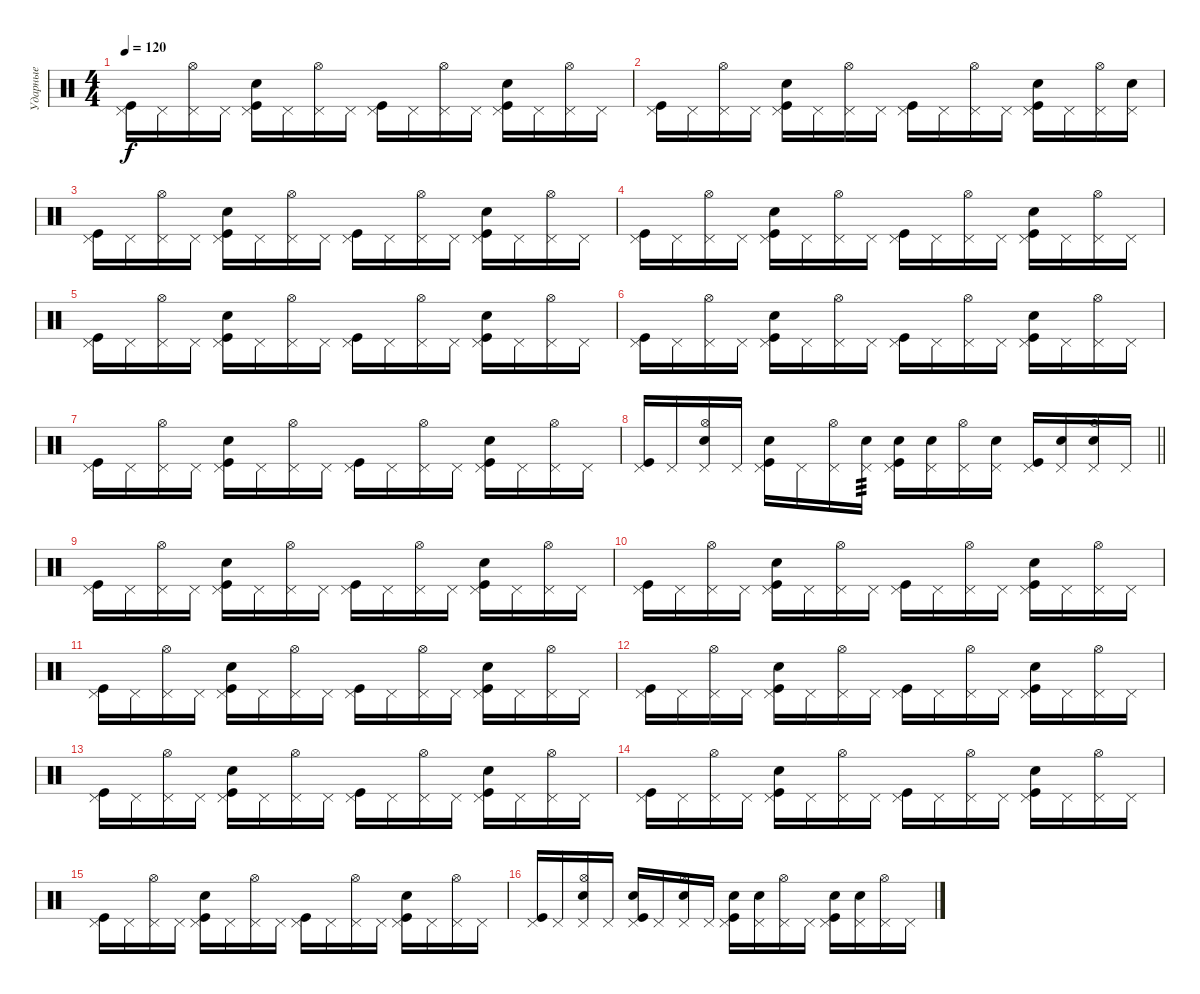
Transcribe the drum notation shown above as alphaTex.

\track ("Ударные" "Ударные") {instrument percussion}
\staff {score}
\articulation defaults
\ts (4 4)
\tempo 120
\clef neutral
\ks c
("Pedal Hi-Hat (hit)" "Kick (hit)").16{dy f} "Pedal Hi-Hat (hit)".16 ("Pedal Hi-Hat (hit)" "Hi-Hat (open)").16 "Pedal Hi-Hat (hit)".16 ("Pedal Hi-Hat (hit)" "Kick (hit)" "Snare (hit) 2").16 "Pedal Hi-Hat (hit)".16 ("Pedal Hi-Hat (hit)" "Hi-Hat (open)").16 "Pedal Hi-Hat (hit)".16 ("Pedal Hi-Hat (hit)" "Kick (hit)").16 "Pedal Hi-Hat (hit)".16 ("Pedal Hi-Hat (hit)" "Hi-Hat (open)").16 "Pedal Hi-Hat (hit)".16 ("Pedal Hi-Hat (hit)" "Kick (hit)" "Snare (hit) 2").16 "Pedal Hi-Hat (hit)".16 ("Pedal Hi-Hat (hit)" "Hi-Hat (open)").16 "Pedal Hi-Hat (hit)".16 |
("Pedal Hi-Hat (hit)" "Kick (hit)").16 "Pedal Hi-Hat (hit)".16 ("Pedal Hi-Hat (hit)" "Hi-Hat (open)").16 "Pedal Hi-Hat (hit)".16 ("Pedal Hi-Hat (hit)" "Kick (hit)" "Snare (hit) 2").16 "Pedal Hi-Hat (hit)".16 ("Pedal Hi-Hat (hit)" "Hi-Hat (open)").16 "Pedal Hi-Hat (hit)".16 ("Pedal Hi-Hat (hit)" "Kick (hit)").16 "Pedal Hi-Hat (hit)".16 ("Pedal Hi-Hat (hit)" "Hi-Hat (open)").16 "Pedal Hi-Hat (hit)".16 ("Pedal Hi-Hat (hit)" "Kick (hit)" "Snare (hit) 2").16 "Pedal Hi-Hat (hit)".16 ("Pedal Hi-Hat (hit)" "Hi-Hat (open)").16 ("Pedal Hi-Hat (hit)" "Snare (hit) 2").16 |
("Pedal Hi-Hat (hit)" "Kick (hit)").16 "Pedal Hi-Hat (hit)".16 ("Pedal Hi-Hat (hit)" "Hi-Hat (open)").16 "Pedal Hi-Hat (hit)".16 ("Pedal Hi-Hat (hit)" "Kick (hit)" "Snare (hit) 2").16 "Pedal Hi-Hat (hit)".16 ("Pedal Hi-Hat (hit)" "Hi-Hat (open)").16 "Pedal Hi-Hat (hit)".16 ("Pedal Hi-Hat (hit)" "Kick (hit)").16 "Pedal Hi-Hat (hit)".16 ("Pedal Hi-Hat (hit)" "Hi-Hat (open)").16 "Pedal Hi-Hat (hit)".16 ("Pedal Hi-Hat (hit)" "Kick (hit)" "Snare (hit) 2").16 "Pedal Hi-Hat (hit)".16 ("Pedal Hi-Hat (hit)" "Hi-Hat (open)").16 "Pedal Hi-Hat (hit)".16 |
("Pedal Hi-Hat (hit)" "Kick (hit)").16 "Pedal Hi-Hat (hit)".16 ("Pedal Hi-Hat (hit)" "Hi-Hat (open)").16 "Pedal Hi-Hat (hit)".16 ("Pedal Hi-Hat (hit)" "Kick (hit)" "Snare (hit) 2").16 "Pedal Hi-Hat (hit)".16 ("Pedal Hi-Hat (hit)" "Hi-Hat (open)").16 "Pedal Hi-Hat (hit)".16 ("Pedal Hi-Hat (hit)" "Kick (hit)").16 "Pedal Hi-Hat (hit)".16 ("Pedal Hi-Hat (hit)" "Hi-Hat (open)").16 "Pedal Hi-Hat (hit)".16 ("Pedal Hi-Hat (hit)" "Kick (hit)" "Snare (hit) 2").16 "Pedal Hi-Hat (hit)".16 ("Pedal Hi-Hat (hit)" "Hi-Hat (open)").16 "Pedal Hi-Hat (hit)".16 |
("Pedal Hi-Hat (hit)" "Kick (hit)").16 "Pedal Hi-Hat (hit)".16 ("Pedal Hi-Hat (hit)" "Hi-Hat (open)").16 "Pedal Hi-Hat (hit)".16 ("Pedal Hi-Hat (hit)" "Kick (hit)" "Snare (hit) 2").16 "Pedal Hi-Hat (hit)".16 ("Pedal Hi-Hat (hit)" "Hi-Hat (open)").16 "Pedal Hi-Hat (hit)".16 ("Pedal Hi-Hat (hit)" "Kick (hit)").16 "Pedal Hi-Hat (hit)".16 ("Pedal Hi-Hat (hit)" "Hi-Hat (open)").16 "Pedal Hi-Hat (hit)".16 ("Pedal Hi-Hat (hit)" "Kick (hit)" "Snare (hit) 2").16 "Pedal Hi-Hat (hit)".16 ("Pedal Hi-Hat (hit)" "Hi-Hat (open)").16 "Pedal Hi-Hat (hit)".16 |
("Pedal Hi-Hat (hit)" "Kick (hit)").16 "Pedal Hi-Hat (hit)".16 ("Pedal Hi-Hat (hit)" "Hi-Hat (open)").16 "Pedal Hi-Hat (hit)".16 ("Pedal Hi-Hat (hit)" "Kick (hit)" "Snare (hit) 2").16 "Pedal Hi-Hat (hit)".16 ("Pedal Hi-Hat (hit)" "Hi-Hat (open)").16 "Pedal Hi-Hat (hit)".16 ("Pedal Hi-Hat (hit)" "Kick (hit)").16 "Pedal Hi-Hat (hit)".16 ("Pedal Hi-Hat (hit)" "Hi-Hat (open)").16 "Pedal Hi-Hat (hit)".16 ("Pedal Hi-Hat (hit)" "Kick (hit)" "Snare (hit) 2").16 "Pedal Hi-Hat (hit)".16 ("Pedal Hi-Hat (hit)" "Hi-Hat (open)").16 "Pedal Hi-Hat (hit)".16 |
("Pedal Hi-Hat (hit)" "Kick (hit)").16 "Pedal Hi-Hat (hit)".16 ("Pedal Hi-Hat (hit)" "Hi-Hat (open)").16 "Pedal Hi-Hat (hit)".16 ("Pedal Hi-Hat (hit)" "Kick (hit)" "Snare (hit) 2").16 "Pedal Hi-Hat (hit)".16 ("Pedal Hi-Hat (hit)" "Hi-Hat (open)").16 "Pedal Hi-Hat (hit)".16 ("Pedal Hi-Hat (hit)" "Kick (hit)").16 "Pedal Hi-Hat (hit)".16 ("Pedal Hi-Hat (hit)" "Hi-Hat (open)").16 "Pedal Hi-Hat (hit)".16 ("Pedal Hi-Hat (hit)" "Kick (hit)" "Snare (hit) 2").16 "Pedal Hi-Hat (hit)".16 ("Pedal Hi-Hat (hit)" "Hi-Hat (open)").16 "Pedal Hi-Hat (hit)".16 |
\barLineRight lightlight
("Pedal Hi-Hat (hit)" "Kick (hit)").16 "Pedal Hi-Hat (hit)".16 ("Pedal Hi-Hat (hit)" "Hi-Hat (open)" "Snare (hit) 2").16 "Pedal Hi-Hat (hit)".16 ("Pedal Hi-Hat (hit)" "Kick (hit)" "Snare (hit) 2").16 "Pedal Hi-Hat (hit)".16 ("Pedal Hi-Hat (hit)" "Hi-Hat (open)").16 ("Pedal Hi-Hat (hit)" "Snare (hit) 2").16{tp 3} ("Pedal Hi-Hat (hit)" "Kick (hit)" "Snare (hit) 2").16 ("Pedal Hi-Hat (hit)" "Snare (hit) 2").16 ("Pedal Hi-Hat (hit)" "Hi-Hat (open)").16 ("Pedal Hi-Hat (hit)" "Snare (hit) 2").16 ("Pedal Hi-Hat (hit)" "Kick (hit)").16 ("Pedal Hi-Hat (hit)" "Snare (hit) 2").16 ("Pedal Hi-Hat (hit)" "Hi-Hat (open)" "Snare (hit) 2").16 "Pedal Hi-Hat (hit)".16 |
\section ("" "")
("Pedal Hi-Hat (hit)" "Kick (hit)").16 "Pedal Hi-Hat (hit)".16 ("Pedal Hi-Hat (hit)" "Hi-Hat (open)").16 "Pedal Hi-Hat (hit)".16 ("Pedal Hi-Hat (hit)" "Kick (hit)" "Snare (hit) 2").16 "Pedal Hi-Hat (hit)".16 ("Pedal Hi-Hat (hit)" "Hi-Hat (open)").16 "Pedal Hi-Hat (hit)".16 ("Pedal Hi-Hat (hit)" "Kick (hit)").16 "Pedal Hi-Hat (hit)".16 ("Pedal Hi-Hat (hit)" "Hi-Hat (open)").16 "Pedal Hi-Hat (hit)".16 ("Pedal Hi-Hat (hit)" "Kick (hit)" "Snare (hit) 2").16 "Pedal Hi-Hat (hit)".16 ("Pedal Hi-Hat (hit)" "Hi-Hat (open)").16 "Pedal Hi-Hat (hit)".16 |
("Pedal Hi-Hat (hit)" "Kick (hit)").16 "Pedal Hi-Hat (hit)".16 ("Pedal Hi-Hat (hit)" "Hi-Hat (open)").16 "Pedal Hi-Hat (hit)".16 ("Pedal Hi-Hat (hit)" "Kick (hit)" "Snare (hit) 2").16 "Pedal Hi-Hat (hit)".16 ("Pedal Hi-Hat (hit)" "Hi-Hat (open)").16 "Pedal Hi-Hat (hit)".16 ("Pedal Hi-Hat (hit)" "Kick (hit)").16 "Pedal Hi-Hat (hit)".16 ("Pedal Hi-Hat (hit)" "Hi-Hat (open)").16 "Pedal Hi-Hat (hit)".16 ("Pedal Hi-Hat (hit)" "Kick (hit)" "Snare (hit) 2").16 "Pedal Hi-Hat (hit)".16 ("Pedal Hi-Hat (hit)" "Hi-Hat (open)").16 "Pedal Hi-Hat (hit)".16 |
("Pedal Hi-Hat (hit)" "Kick (hit)").16 "Pedal Hi-Hat (hit)".16 ("Pedal Hi-Hat (hit)" "Hi-Hat (open)").16 "Pedal Hi-Hat (hit)".16 ("Pedal Hi-Hat (hit)" "Kick (hit)" "Snare (hit) 2").16 "Pedal Hi-Hat (hit)".16 ("Pedal Hi-Hat (hit)" "Hi-Hat (open)").16 "Pedal Hi-Hat (hit)".16 ("Pedal Hi-Hat (hit)" "Kick (hit)").16 "Pedal Hi-Hat (hit)".16 ("Pedal Hi-Hat (hit)" "Hi-Hat (open)").16 "Pedal Hi-Hat (hit)".16 ("Pedal Hi-Hat (hit)" "Kick (hit)" "Snare (hit) 2").16 "Pedal Hi-Hat (hit)".16 ("Pedal Hi-Hat (hit)" "Hi-Hat (open)").16 "Pedal Hi-Hat (hit)".16 |
("Pedal Hi-Hat (hit)" "Kick (hit)").16 "Pedal Hi-Hat (hit)".16 ("Pedal Hi-Hat (hit)" "Hi-Hat (open)").16 "Pedal Hi-Hat (hit)".16 ("Pedal Hi-Hat (hit)" "Kick (hit)" "Snare (hit) 2").16 "Pedal Hi-Hat (hit)".16 ("Pedal Hi-Hat (hit)" "Hi-Hat (open)").16 "Pedal Hi-Hat (hit)".16 ("Pedal Hi-Hat (hit)" "Kick (hit)").16 "Pedal Hi-Hat (hit)".16 ("Pedal Hi-Hat (hit)" "Hi-Hat (open)").16 "Pedal Hi-Hat (hit)".16 ("Pedal Hi-Hat (hit)" "Kick (hit)" "Snare (hit) 2").16 "Pedal Hi-Hat (hit)".16 ("Pedal Hi-Hat (hit)" "Hi-Hat (open)").16 "Pedal Hi-Hat (hit)".16 |
("Pedal Hi-Hat (hit)" "Kick (hit)").16 "Pedal Hi-Hat (hit)".16 ("Pedal Hi-Hat (hit)" "Hi-Hat (open)").16 "Pedal Hi-Hat (hit)".16 ("Pedal Hi-Hat (hit)" "Kick (hit)" "Snare (hit) 2").16 "Pedal Hi-Hat (hit)".16 ("Pedal Hi-Hat (hit)" "Hi-Hat (open)").16 "Pedal Hi-Hat (hit)".16 ("Pedal Hi-Hat (hit)" "Kick (hit)").16 "Pedal Hi-Hat (hit)".16 ("Pedal Hi-Hat (hit)" "Hi-Hat (open)").16 "Pedal Hi-Hat (hit)".16 ("Pedal Hi-Hat (hit)" "Kick (hit)" "Snare (hit) 2").16 "Pedal Hi-Hat (hit)".16 ("Pedal Hi-Hat (hit)" "Hi-Hat (open)").16 "Pedal Hi-Hat (hit)".16 |
("Pedal Hi-Hat (hit)" "Kick (hit)").16 "Pedal Hi-Hat (hit)".16 ("Pedal Hi-Hat (hit)" "Hi-Hat (open)").16 "Pedal Hi-Hat (hit)".16 ("Pedal Hi-Hat (hit)" "Kick (hit)" "Snare (hit) 2").16 "Pedal Hi-Hat (hit)".16 ("Pedal Hi-Hat (hit)" "Hi-Hat (open)").16 "Pedal Hi-Hat (hit)".16 ("Pedal Hi-Hat (hit)" "Kick (hit)").16 "Pedal Hi-Hat (hit)".16 ("Pedal Hi-Hat (hit)" "Hi-Hat (open)").16 "Pedal Hi-Hat (hit)".16 ("Pedal Hi-Hat (hit)" "Kick (hit)" "Snare (hit) 2").16 "Pedal Hi-Hat (hit)".16 ("Pedal Hi-Hat (hit)" "Hi-Hat (open)").16 "Pedal Hi-Hat (hit)".16 |
("Pedal Hi-Hat (hit)" "Kick (hit)").16 "Pedal Hi-Hat (hit)".16 ("Pedal Hi-Hat (hit)" "Hi-Hat (open)").16 "Pedal Hi-Hat (hit)".16 ("Pedal Hi-Hat (hit)" "Kick (hit)" "Snare (hit) 2").16 "Pedal Hi-Hat (hit)".16 ("Pedal Hi-Hat (hit)" "Hi-Hat (open)").16 "Pedal Hi-Hat (hit)".16 ("Pedal Hi-Hat (hit)" "Kick (hit)").16 "Pedal Hi-Hat (hit)".16 ("Pedal Hi-Hat (hit)" "Hi-Hat (open)").16 "Pedal Hi-Hat (hit)".16 ("Pedal Hi-Hat (hit)" "Kick (hit)" "Snare (hit) 2").16 "Pedal Hi-Hat (hit)".16 ("Pedal Hi-Hat (hit)" "Hi-Hat (open)").16 "Pedal Hi-Hat (hit)".16 |
("Pedal Hi-Hat (hit)" "Kick (hit)").16 "Pedal Hi-Hat (hit)".16 ("Pedal Hi-Hat (hit)" "Hi-Hat (open)" "Snare (hit) 2").16 "Pedal Hi-Hat (hit)".16 ("Pedal Hi-Hat (hit)" "Kick (hit)" "Snare (hit) 2").16 "Pedal Hi-Hat (hit)".16 ("Pedal Hi-Hat (hit)" "Hi-Hat (open)" "Snare (hit) 2").16 "Pedal Hi-Hat (hit)".16 ("Pedal Hi-Hat (hit)" "Kick (hit)" "Snare (hit) 2").16 ("Pedal Hi-Hat (hit)" "Snare (hit) 2").16 ("Pedal Hi-Hat (hit)" "Hi-Hat (open)").16 "Pedal Hi-Hat (hit)".16 ("Pedal Hi-Hat (hit)" "Kick (hit)" "Snare (hit) 2").16 ("Pedal Hi-Hat (hit)" "Snare (hit) 2").16 ("Pedal Hi-Hat (hit)" "Hi-Hat (open)").16 "Pedal Hi-Hat (hit)".16
